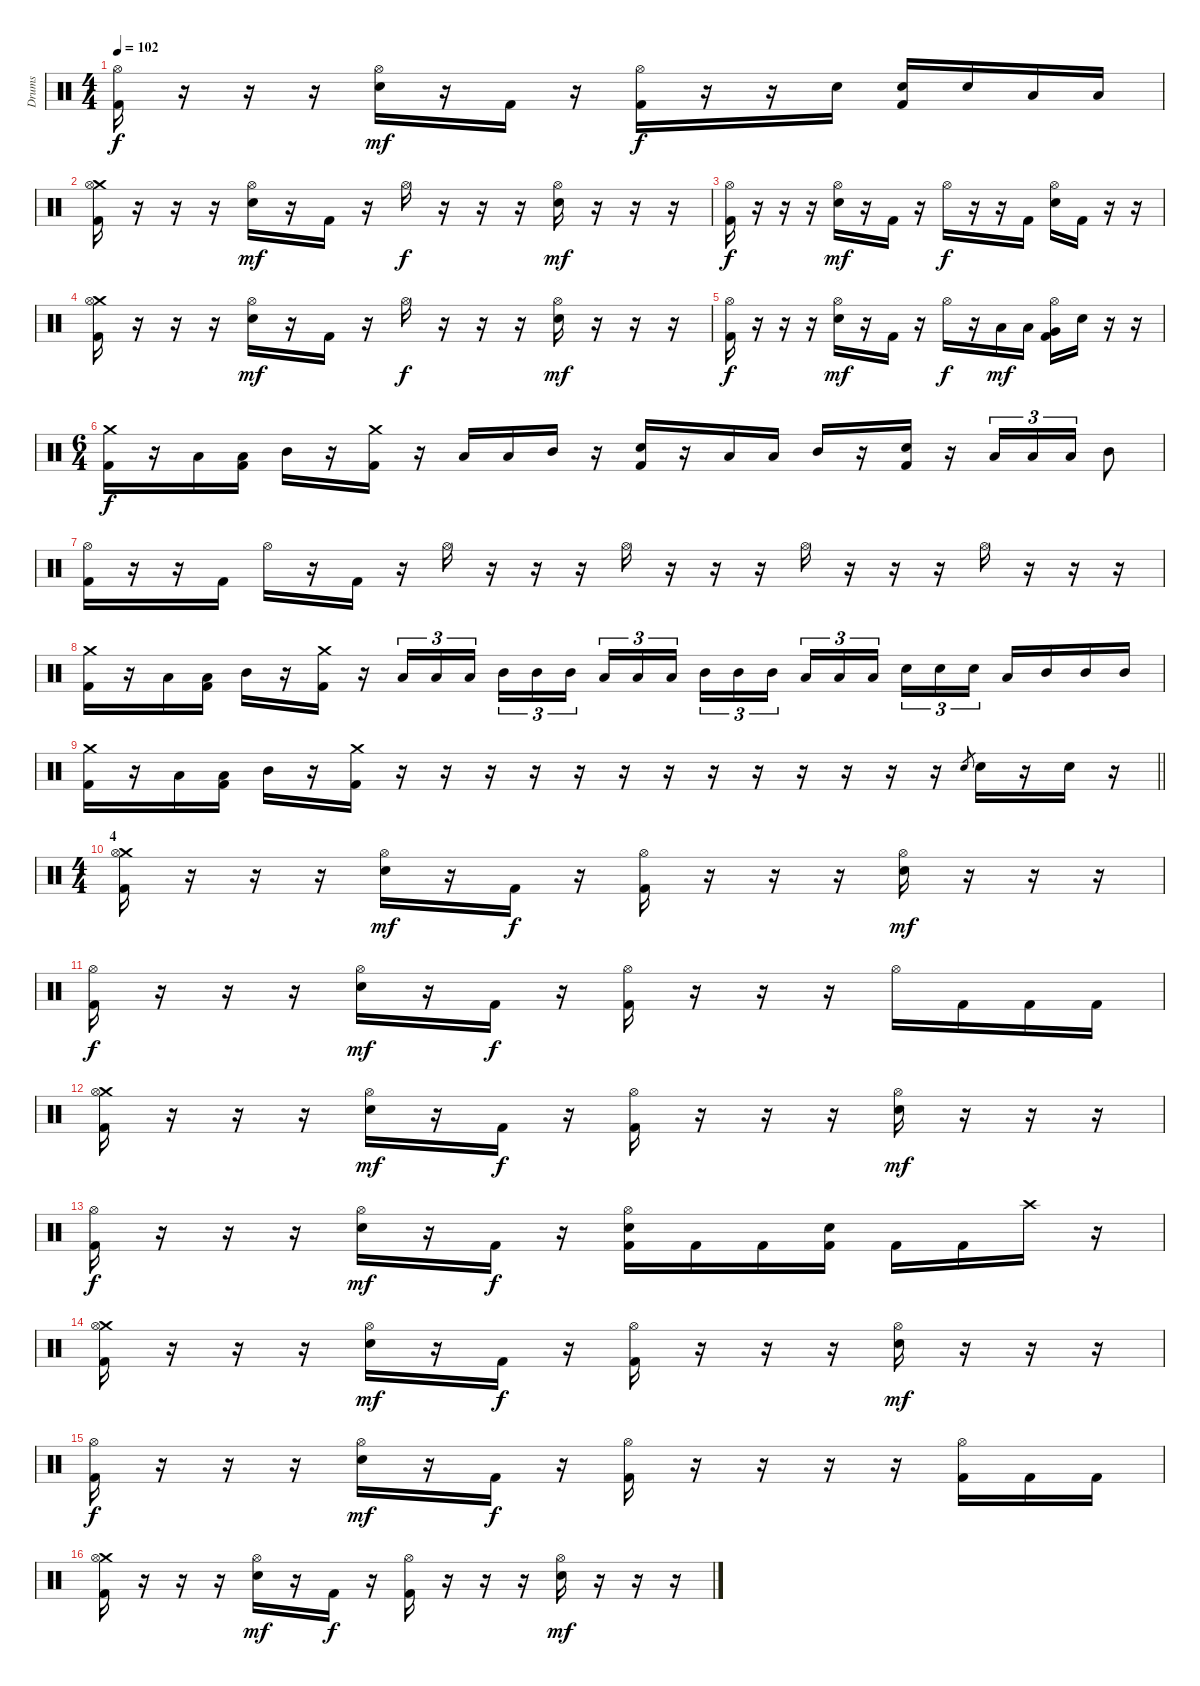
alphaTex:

\track ("Drums" "Drums") {instrument percussion}
\staff {score}
\articulation defaults
\ts (4 4)
\tempo 102
\clef neutral
\ks c
("Hi-Hat (open)" "Kick (hit) 2").16{dy f} r.16 r.16 r.16 ("Hi-Hat (open)" "Snare (hit) 2").16{dy mf} r.16 "Kick (hit) 2".16 r.16 ("Hi-Hat (open)" "Kick (hit) 2").16{dy f} r.16 r.16 "Snare (hit) 2".16 ("Snare (hit) 2" "Kick (hit) 2").16 "Snare (hit) 2".16 "Low Floor Tom (hit)".16 "Low Tom (hit)".16 |
("Crash medium (hit)" "Hi-Hat (open)" "Kick (hit) 2").16 r.16 r.16 r.16 ("Hi-Hat (open)" "Snare (hit) 2").16{dy mf} r.16 "Kick (hit) 2".16 r.16 "Hi-Hat (open)".16{dy f} r.16 r.16 r.16 ("Hi-Hat (open)" "Snare (hit) 2").16{dy mf} r.16 r.16 r.16 |
("Hi-Hat (open)" "Kick (hit) 2").16{dy f} r.16 r.16 r.16 ("Hi-Hat (open)" "Snare (hit) 2").16{dy mf} r.16 "Kick (hit) 2".16 r.16 "Hi-Hat (open)".16{dy f} r.16 r.16 "Kick (hit) 2".16 ("Hi-Hat (open)" "Snare (hit) 2").16 "Kick (hit) 2".16 r.16 r.16 |
("Crash medium (hit)" "Hi-Hat (open)" "Kick (hit) 2").16 r.16 r.16 r.16 ("Hi-Hat (open)" "Snare (hit) 2").16{dy mf} r.16 "Kick (hit) 2".16 r.16 "Hi-Hat (open)".16{dy f} r.16 r.16 r.16 ("Hi-Hat (open)" "Snare (hit) 2").16{dy mf} r.16 r.16 r.16 |
("Hi-Hat (open)" "Kick (hit) 2").16{dy f} r.16 r.16 r.16 ("Hi-Hat (open)" "Snare (hit) 2").16{dy mf} r.16 "Kick (hit) 2".16 r.16 "Hi-Hat (open)".16{dy f} r.16 "Low Tom (hit)".16{dy mf} "Low Tom (hit)".16 ("Hi-Hat (open)" "Very Low Tom (hit)" "Kick (hit) 2").16 "Snare (hit) 2".16 r.16 r.16 |
\ts (6 4)
("Crash medium (hit)" "Kick (hit) 2").16{dy f} r.16 "Low Tom (hit)".16 ("Low Tom (hit)" "Kick (hit) 2").16 "Mid Tom (hit)".16 r.16 ("Crash medium (hit)" "Kick (hit) 2").16 r.16 "Low Tom (hit)".16 "Low Tom (hit)".16 "Mid Tom (hit)".16 r.16 ("Snare (hit) 2" "Kick (hit) 2").16 r.16 "Low Tom (hit)".16 "Low Tom (hit)".16 "Mid Tom (hit)".16 r.16 ("Snare (hit) 2" "Kick (hit) 2").16 r.16 "Low Tom (hit)".16{tu (3 2)} "Low Tom (hit)".16{tu (3 2)} "Low Tom (hit)".16{tu (3 2)} "Mid Tom (hit)".8 |
("Hi-Hat (open)" "Kick (hit) 2").16 r.16 r.16 "Kick (hit) 2".16 "Hi-Hat (open)".16 r.16 "Kick (hit) 2".16 r.16 "Hi-Hat (open)".16 r.16 r.16 r.16 "Hi-Hat (open)".16 r.16 r.16 r.16 "Hi-Hat (open)".16 r.16 r.16 r.16 "Hi-Hat (open)".16 r.16 r.16 r.16 |
("Crash medium (hit)" "Kick (hit) 2").16 r.16 "Low Tom (hit)".16 ("Low Tom (hit)" "Kick (hit) 2").16 "Mid Tom (hit)".16 r.16 ("Crash medium (hit)" "Kick (hit) 2").16 r.16 "Low Tom (hit)".16{tu (3 2)} "Low Tom (hit)".16{tu (3 2)} "Low Tom (hit)".16{tu (3 2) beam splitsecondary} "Mid Tom (hit)".16{tu (3 2)} "Mid Tom (hit)".16{tu (3 2)} "Mid Tom (hit)".16{tu (3 2)} "Low Tom (hit)".16{tu (3 2)} "Low Tom (hit)".16{tu (3 2)} "Low Tom (hit)".16{tu (3 2) beam splitsecondary} "Mid Tom (hit)".16{tu (3 2)} "Mid Tom (hit)".16{tu (3 2)} "Mid Tom (hit)".16{tu (3 2) beam splitsecondary} "Low Tom (hit)".16{tu (3 2)} "Low Tom (hit)".16{tu (3 2)} "Low Tom (hit)".16{tu (3 2) beam splitsecondary} "Snare (hit) 2".16{tu (3 2)} "Snare (hit) 2".16{tu (3 2)} "Snare (hit) 2".16{tu (3 2) beam splitsecondary} "Low Tom (hit)".16 "Mid Tom (hit)".16 "Mid Tom (hit)".16 "Mid Tom (hit)".16 |
\barLineRight lightlight
("Crash medium (hit)" "Kick (hit) 2").16 r.16 "Low Tom (hit)".16 ("Low Tom (hit)" "Kick (hit) 2").16 "Mid Tom (hit)".16 r.16 ("Crash medium (hit)" "Kick (hit) 2").16 r.16 r.16 r.16 r.16 r.16 r.16 r.16 r.16 r.16 r.16 r.16 r.16 r.16 "Snare (hit) 2".8{gr} "Snare (hit) 2".16 r.16 "Snare (hit) 2".16 r.16 |
\ts (4 4)
\section ("" "4")
("Crash medium (hit)" "Hi-Hat (open)" "Kick (hit) 2").16 r.16 r.16 r.16 ("Hi-Hat (open)" "Snare (hit) 2").16{dy mf} r.16 "Kick (hit) 2".16{dy f} r.16 ("Hi-Hat (open)" "Kick (hit) 2").16 r.16 r.16 r.16 ("Hi-Hat (open)" "Snare (hit) 2").16{dy mf} r.16 r.16 r.16 |
("Hi-Hat (open)" "Kick (hit) 2").16{dy f} r.16 r.16 r.16 ("Hi-Hat (open)" "Snare (hit) 2").16{dy mf} r.16 "Kick (hit) 2".16{dy f} r.16 ("Hi-Hat (open)" "Kick (hit) 2").16 r.16 r.16 r.16 "Hi-Hat (open)".16 "Kick (hit) 2".16 "Kick (hit) 2".16 "Kick (hit) 2".16 |
("Crash medium (hit)" "Hi-Hat (open)" "Kick (hit) 2").16 r.16 r.16 r.16 ("Hi-Hat (open)" "Snare (hit) 2").16{dy mf} r.16 "Kick (hit) 2".16{dy f} r.16 ("Hi-Hat (open)" "Kick (hit) 2").16 r.16 r.16 r.16 ("Hi-Hat (open)" "Snare (hit) 2").16{dy mf} r.16 r.16 r.16 |
("Hi-Hat (open)" "Kick (hit) 2").16{dy f} r.16 r.16 r.16 ("Hi-Hat (open)" "Snare (hit) 2").16{dy mf} r.16 "Kick (hit) 2".16{dy f} r.16 ("Hi-Hat (open)" "Snare (hit) 2" "Kick (hit) 2").16 "Kick (hit) 2".16 "Kick (hit) 2".16 ("Snare (hit) 2" "Kick (hit) 2").16 "Kick (hit) 2".16 "Kick (hit) 2".16 "Crash high (hit)".16 r.16 |
("Crash medium (hit)" "Hi-Hat (open)" "Kick (hit) 2").16 r.16 r.16 r.16 ("Hi-Hat (open)" "Snare (hit) 2").16{dy mf} r.16 "Kick (hit) 2".16{dy f} r.16 ("Hi-Hat (open)" "Kick (hit) 2").16 r.16 r.16 r.16 ("Hi-Hat (open)" "Snare (hit) 2").16{dy mf} r.16 r.16 r.16 |
("Hi-Hat (open)" "Kick (hit) 2").16{dy f} r.16 r.16 r.16 ("Hi-Hat (open)" "Snare (hit) 2").16{dy mf} r.16 "Kick (hit) 2".16{dy f} r.16 ("Hi-Hat (open)" "Kick (hit) 2").16 r.16 r.16 r.16 r.16 ("Hi-Hat (open)" "Kick (hit) 2").16 "Kick (hit) 2".16 "Kick (hit) 2".16 |
("Crash medium (hit)" "Hi-Hat (open)" "Kick (hit) 2").16 r.16 r.16 r.16 ("Hi-Hat (open)" "Snare (hit) 2").16{dy mf} r.16 "Kick (hit) 2".16{dy f} r.16 ("Hi-Hat (open)" "Kick (hit) 2").16 r.16 r.16 r.16 ("Hi-Hat (open)" "Snare (hit) 2").16{dy mf} r.16 r.16 r.16
